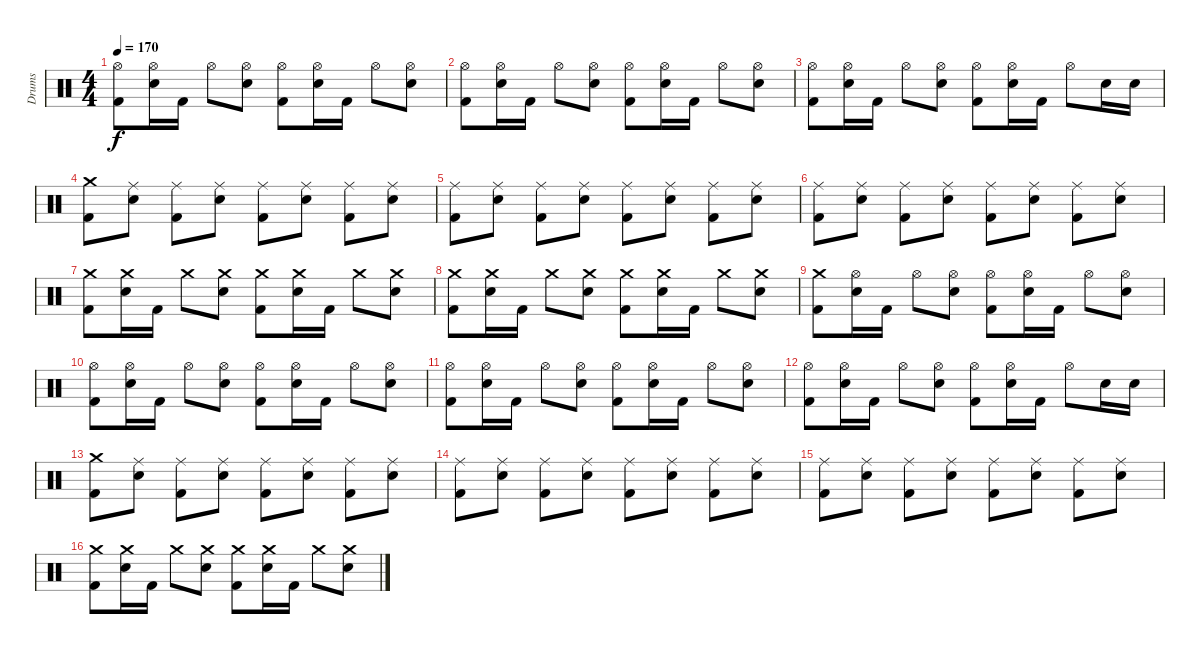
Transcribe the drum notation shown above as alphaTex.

\track ("Drums" "Drums") {instrument percussion}
\staff {score}
\articulation defaults
\ts (4 4)
\tempo 170
\clef neutral
\ks c
("Hi-Hat (open)" "Kick (hit) 2").8{dy f} ("Hi-Hat (open)" "Electric Snare (hit)").16 "Kick (hit) 2".16 "Hi-Hat (open)".8 ("Hi-Hat (open)" "Electric Snare (hit)").8 ("Hi-Hat (open)" "Kick (hit) 2").8 ("Hi-Hat (open)" "Electric Snare (hit)").16 "Kick (hit) 2".16 "Hi-Hat (open)".8 ("Hi-Hat (open)" "Electric Snare (hit)").8 |
("Hi-Hat (open)" "Kick (hit) 2").8 ("Hi-Hat (open)" "Electric Snare (hit)").16 "Kick (hit) 2".16 "Hi-Hat (open)".8 ("Hi-Hat (open)" "Electric Snare (hit)").8 ("Hi-Hat (open)" "Kick (hit) 2").8 ("Hi-Hat (open)" "Electric Snare (hit)").16 "Kick (hit) 2".16 "Hi-Hat (open)".8 ("Hi-Hat (open)" "Electric Snare (hit)").8 |
("Hi-Hat (open)" "Kick (hit) 2").8 ("Hi-Hat (open)" "Electric Snare (hit)").16 "Kick (hit) 2".16 "Hi-Hat (open)".8 ("Hi-Hat (open)" "Electric Snare (hit)").8 ("Hi-Hat (open)" "Kick (hit) 2").8 ("Hi-Hat (open)" "Electric Snare (hit)").16 "Kick (hit) 2".16 "Hi-Hat (open)".8 "Electric Snare (hit)".16 "Electric Snare (hit)".16 |
("Crash medium (hit)" "Kick (hit) 2").8 ("Ride (middle)" "Electric Snare (hit)").8 ("Ride (middle)" "Kick (hit) 2").8 ("Ride (middle)" "Electric Snare (hit)").8 ("Ride (middle)" "Kick (hit) 2").8 ("Ride (middle)" "Electric Snare (hit)").8 ("Ride (middle)" "Kick (hit) 2").8 ("Ride (middle)" "Electric Snare (hit)").8 |
("Ride (middle)" "Kick (hit) 2").8 ("Ride (middle)" "Electric Snare (hit)").8 ("Ride (middle)" "Kick (hit) 2").8 ("Ride (middle)" "Electric Snare (hit)").8 ("Ride (middle)" "Kick (hit) 2").8 ("Ride (middle)" "Electric Snare (hit)").8 ("Ride (middle)" "Kick (hit) 2").8 ("Ride (middle)" "Electric Snare (hit)").8 |
("Ride (middle)" "Kick (hit) 2").8 ("Ride (middle)" "Electric Snare (hit)").8 ("Ride (middle)" "Kick (hit) 2").8 ("Ride (middle)" "Electric Snare (hit)").8 ("Ride (middle)" "Kick (hit) 2").8 ("Ride (middle)" "Electric Snare (hit)").8 ("Ride (middle)" "Kick (hit) 2").8 ("Ride (middle)" "Electric Snare (hit)").8 |
("Crash medium (hit)" "Kick (hit) 2").8 ("Crash medium (hit)" "Electric Snare (hit)").16 "Kick (hit) 2".16 "Crash medium (hit)".8 ("Crash medium (hit)" "Electric Snare (hit)").8 ("Crash medium (hit)" "Kick (hit) 2").8 ("Crash medium (hit)" "Electric Snare (hit)").16 "Kick (hit) 2".16 "Crash medium (hit)".8 ("Crash medium (hit)" "Electric Snare (hit)").8 |
("Crash medium (hit)" "Kick (hit) 2").8 ("Crash medium (hit)" "Electric Snare (hit)").16 "Kick (hit) 2".16 "Crash medium (hit)".8 ("Crash medium (hit)" "Electric Snare (hit)").8 ("Crash medium (hit)" "Kick (hit) 2").8 ("Crash medium (hit)" "Electric Snare (hit)").16 "Kick (hit) 2".16 "Crash medium (hit)".8 ("Crash medium (hit)" "Electric Snare (hit)").8 |
("Crash medium (hit)" "Kick (hit) 2").8 ("Hi-Hat (open)" "Electric Snare (hit)").16 "Kick (hit) 2".16 "Hi-Hat (open)".8 ("Hi-Hat (open)" "Electric Snare (hit)").8 ("Hi-Hat (open)" "Kick (hit) 2").8 ("Hi-Hat (open)" "Electric Snare (hit)").16 "Kick (hit) 2".16 "Hi-Hat (open)".8 ("Hi-Hat (open)" "Electric Snare (hit)").8 |
("Hi-Hat (open)" "Kick (hit) 2").8 ("Hi-Hat (open)" "Electric Snare (hit)").16 "Kick (hit) 2".16 "Hi-Hat (open)".8 ("Hi-Hat (open)" "Electric Snare (hit)").8 ("Hi-Hat (open)" "Kick (hit) 2").8 ("Hi-Hat (open)" "Electric Snare (hit)").16 "Kick (hit) 2".16 "Hi-Hat (open)".8 ("Hi-Hat (open)" "Electric Snare (hit)").8 |
("Hi-Hat (open)" "Kick (hit) 2").8 ("Hi-Hat (open)" "Electric Snare (hit)").16 "Kick (hit) 2".16 "Hi-Hat (open)".8 ("Hi-Hat (open)" "Electric Snare (hit)").8 ("Hi-Hat (open)" "Kick (hit) 2").8 ("Hi-Hat (open)" "Electric Snare (hit)").16 "Kick (hit) 2".16 "Hi-Hat (open)".8 ("Hi-Hat (open)" "Electric Snare (hit)").8 |
("Hi-Hat (open)" "Kick (hit) 2").8 ("Hi-Hat (open)" "Electric Snare (hit)").16 "Kick (hit) 2".16 "Hi-Hat (open)".8 ("Hi-Hat (open)" "Electric Snare (hit)").8 ("Hi-Hat (open)" "Kick (hit) 2").8 ("Hi-Hat (open)" "Electric Snare (hit)").16 "Kick (hit) 2".16 "Hi-Hat (open)".8 "Electric Snare (hit)".16 "Electric Snare (hit)".16 |
("Crash medium (hit)" "Kick (hit) 2").8 ("Ride (middle)" "Electric Snare (hit)").8 ("Ride (middle)" "Kick (hit) 2").8 ("Ride (middle)" "Electric Snare (hit)").8 ("Ride (middle)" "Kick (hit) 2").8 ("Ride (middle)" "Electric Snare (hit)").8 ("Ride (middle)" "Kick (hit) 2").8 ("Ride (middle)" "Electric Snare (hit)").8 |
("Ride (middle)" "Kick (hit) 2").8 ("Ride (middle)" "Electric Snare (hit)").8 ("Ride (middle)" "Kick (hit) 2").8 ("Ride (middle)" "Electric Snare (hit)").8 ("Ride (middle)" "Kick (hit) 2").8 ("Ride (middle)" "Electric Snare (hit)").8 ("Ride (middle)" "Kick (hit) 2").8 ("Ride (middle)" "Electric Snare (hit)").8 |
("Ride (middle)" "Kick (hit) 2").8 ("Ride (middle)" "Electric Snare (hit)").8 ("Ride (middle)" "Kick (hit) 2").8 ("Ride (middle)" "Electric Snare (hit)").8 ("Ride (middle)" "Kick (hit) 2").8 ("Ride (middle)" "Electric Snare (hit)").8 ("Ride (middle)" "Kick (hit) 2").8 ("Ride (middle)" "Electric Snare (hit)").8 |
("Crash medium (hit)" "Kick (hit) 2").8 ("Crash medium (hit)" "Electric Snare (hit)").16 "Kick (hit) 2".16 "Crash medium (hit)".8 ("Crash medium (hit)" "Electric Snare (hit)").8 ("Crash medium (hit)" "Kick (hit) 2").8 ("Crash medium (hit)" "Electric Snare (hit)").16 "Kick (hit) 2".16 "Crash medium (hit)".8 ("Crash medium (hit)" "Electric Snare (hit)").8
